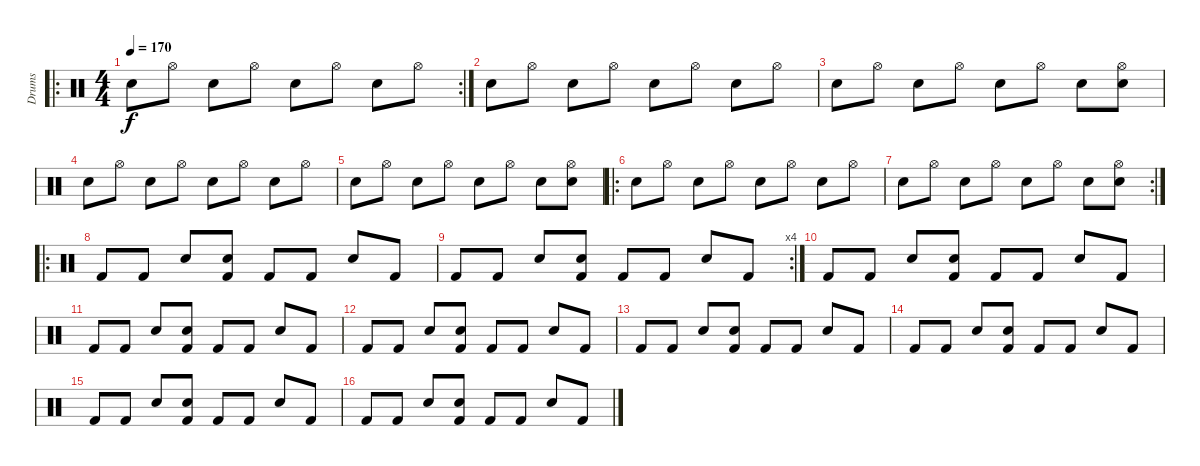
\track ("Drums" "Drums") {instrument percussion}
\staff {score}
\articulation defaults
\ro
\rc 2
\ts (4 4)
\tempo 170
\clef neutral
\ks c "Electric Snare (hit)".8{dy f} "Hi-Hat (open)".8 "Electric Snare (hit)".8 "Hi-Hat (open)".8 "Electric Snare (hit)".8 "Hi-Hat (open)".8 "Electric Snare (hit)".8 "Hi-Hat (open)".8
|
"Electric Snare (hit)".8 "Hi-Hat (open)".8 "Electric Snare (hit)".8 "Hi-Hat (open)".8 "Electric Snare (hit)".8 "Hi-Hat (open)".8 "Electric Snare (hit)".8 "Hi-Hat (open)".8 |
"Electric Snare (hit)".8 "Hi-Hat (open)".8 "Electric Snare (hit)".8 "Hi-Hat (open)".8 "Electric Snare (hit)".8 "Hi-Hat (open)".8 "Electric Snare (hit)".8 ("Electric Snare (hit)" "Hi-Hat (open)").8 |
"Electric Snare (hit)".8 "Hi-Hat (open)".8 "Electric Snare (hit)".8 "Hi-Hat (open)".8 "Electric Snare (hit)".8 "Hi-Hat (open)".8 "Electric Snare (hit)".8 "Hi-Hat (open)".8 |
"Electric Snare (hit)".8 "Hi-Hat (open)".8 "Electric Snare (hit)".8 "Hi-Hat (open)".8 "Electric Snare (hit)".8 "Hi-Hat (open)".8 "Electric Snare (hit)".8 ("Electric Snare (hit)" "Hi-Hat (open)").8 |
\ro "Electric Snare (hit)".8 "Hi-Hat (open)".8 "Electric Snare (hit)".8 "Hi-Hat (open)".8 "Electric Snare (hit)".8 "Hi-Hat (open)".8 "Electric Snare (hit)".8 "Hi-Hat (open)".8
|
\rc 2 "Electric Snare (hit)".8 "Hi-Hat (open)".8 "Electric Snare (hit)".8 "Hi-Hat (open)".8 "Electric Snare (hit)".8 "Hi-Hat (open)".8 "Electric Snare (hit)".8
("Hi-Hat (open)" "Electric Snare (hit)").8 |
\ro "Kick (hit) 2".8 "Kick (hit) 2".8 "Snare (hit) 2".8
("Electric Snare (hit)" "Kick (hit) 2").8 "Kick (hit) 2".8 "Kick (hit) 2".8 "Snare (hit) 2".8 "Kick (hit) 2".8 |
\rc 4 "Kick (hit) 2".8 "Kick (hit) 2".8 "Snare (hit) 2".8
("Electric Snare (hit)" "Kick (hit) 2").8 "Kick (hit) 2".8 "Kick (hit) 2".8 "Snare (hit) 2".8 "Kick (hit) 2".8 |
"Kick (hit) 2".8 "Kick (hit) 2".8 "Snare (hit) 2".8 ("Electric Snare (hit)" "Kick (hit) 2").8 "Kick (hit) 2".8 "Kick (hit) 2".8 "Snare (hit) 2".8 "Kick (hit) 2".8 |
"Kick (hit) 2".8 "Kick (hit) 2".8 "Snare (hit) 2".8 ("Electric Snare (hit)" "Kick (hit) 2").8 "Kick (hit) 2".8 "Kick (hit) 2".8 "Snare (hit) 2".8 "Kick (hit) 2".8 |
"Kick (hit) 2".8 "Kick (hit) 2".8 "Snare (hit) 2".8 ("Electric Snare (hit)" "Kick (hit) 2").8 "Kick (hit) 2".8 "Kick (hit) 2".8 "Snare (hit) 2".8 "Kick (hit) 2".8 |
"Kick (hit) 2".8 "Kick (hit) 2".8 "Snare (hit) 2".8 ("Electric Snare (hit)" "Kick (hit) 2").8 "Kick (hit) 2".8 "Kick (hit) 2".8 "Snare (hit) 2".8 "Kick (hit) 2".8 |
"Kick (hit) 2".8 "Kick (hit) 2".8 "Snare (hit) 2".8 ("Electric Snare (hit)" "Kick (hit) 2").8 "Kick (hit) 2".8 "Kick (hit) 2".8 "Snare (hit) 2".8 "Kick (hit) 2".8 |
"Kick (hit) 2".8 "Kick (hit) 2".8 "Snare (hit) 2".8 ("Electric Snare (hit)" "Kick (hit) 2").8 "Kick (hit) 2".8 "Kick (hit) 2".8 "Snare (hit) 2".8 "Kick (hit) 2".8 |
"Kick (hit) 2".8 "Kick (hit) 2".8 "Snare (hit) 2".8 ("Electric Snare (hit)" "Kick (hit) 2").8 "Kick (hit) 2".8 "Kick (hit) 2".8 "Snare (hit) 2".8 "Kick (hit) 2".8
